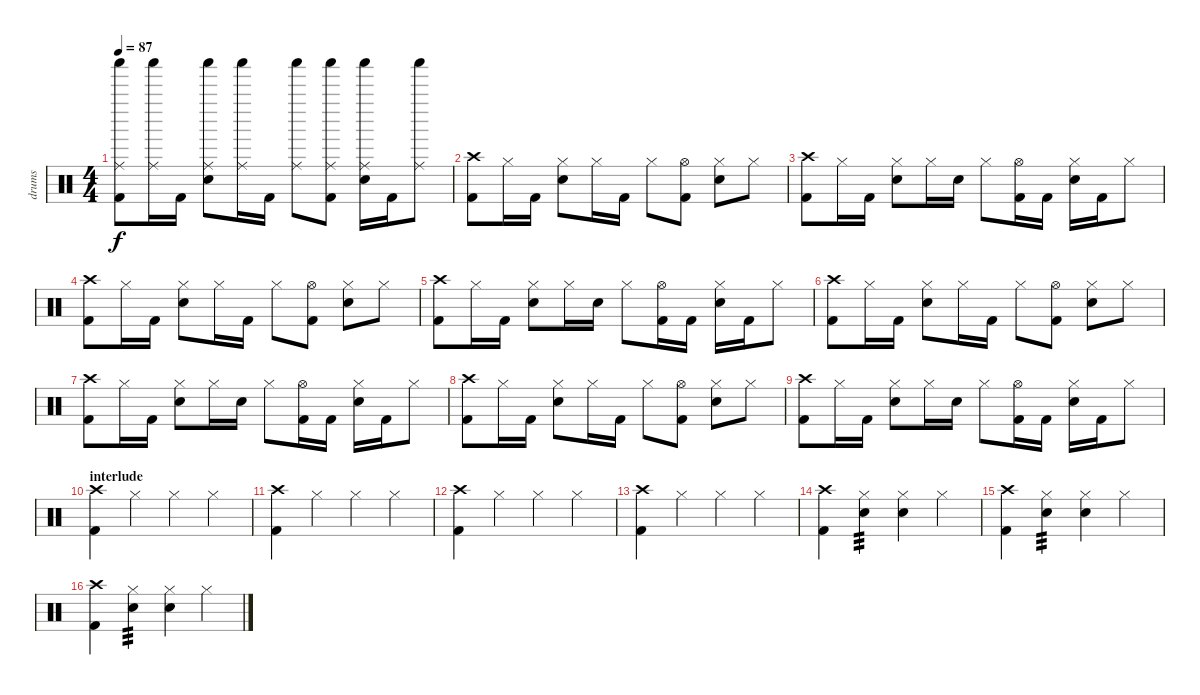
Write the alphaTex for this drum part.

\track ("drums" "drums") {instrument percussion}
\staff {score}
\articulation defaults
\ts (4 4)
\tempo 87
\clef neutral
\ks c
("Shaker (hit)" "Ride (middle)" "Kick (hit) 2").8{dy f} ("Shaker (hit)" "Ride (middle)").16 "Kick (hit) 2".16 ("Shaker (hit)" "Ride (middle)" "Electric Snare (hit)").8 ("Shaker (hit)" "Ride (middle)").16 "Kick (hit) 2".16 ("Shaker (hit)" "Ride (middle)").8 ("Shaker (hit)" "Ride (middle)" "Kick (hit) 2").8 ("Shaker (hit)" "Ride (middle)" "Electric Snare (hit)").16 "Kick (hit) 2".16 ("Shaker (hit)" "Ride (middle)").8 |
("Crash high (hit)" "Kick (hit) 2").8 "Hi-Hat (closed)".16 "Kick (hit) 2".16 ("Hi-Hat (closed)" "Electric Snare (hit)").8 "Hi-Hat (closed)".16 "Kick (hit) 2".16 "Hi-Hat (closed)".8 ("Hi-Hat (open)" "Kick (hit) 2").8 ("Hi-Hat (closed)" "Electric Snare (hit)").8 "Hi-Hat (closed)".8 |
("Crash high (hit)" "Kick (hit) 2").8 "Hi-Hat (closed)".16 "Kick (hit) 2".16 ("Hi-Hat (closed)" "Electric Snare (hit)").8 "Hi-Hat (closed)".16 "Electric Snare (hit)".16 "Hi-Hat (closed)".8 ("Hi-Hat (open)" "Kick (hit) 2").16 "Kick (hit) 2".16 ("Hi-Hat (closed)" "Electric Snare (hit)").16 "Kick (hit) 2".16 "Hi-Hat (closed)".8 |
("Crash high (hit)" "Kick (hit) 2").8 "Hi-Hat (closed)".16 "Kick (hit) 2".16 ("Hi-Hat (closed)" "Electric Snare (hit)").8 "Hi-Hat (closed)".16 "Kick (hit) 2".16 "Hi-Hat (closed)".8 ("Hi-Hat (open)" "Kick (hit) 2").8 ("Hi-Hat (closed)" "Electric Snare (hit)").8 "Hi-Hat (closed)".8 |
("Crash high (hit)" "Kick (hit) 2").8 "Hi-Hat (closed)".16 "Kick (hit) 2".16 ("Hi-Hat (closed)" "Electric Snare (hit)").8 "Hi-Hat (closed)".16 "Electric Snare (hit)".16 "Hi-Hat (closed)".8 ("Hi-Hat (open)" "Kick (hit) 2").16 "Kick (hit) 2".16 ("Hi-Hat (closed)" "Electric Snare (hit)").16 "Kick (hit) 2".16 "Hi-Hat (closed)".8 |
("Crash high (hit)" "Kick (hit) 2").8 "Hi-Hat (closed)".16 "Kick (hit) 2".16 ("Hi-Hat (closed)" "Electric Snare (hit)").8 "Hi-Hat (closed)".16 "Kick (hit) 2".16 "Hi-Hat (closed)".8 ("Hi-Hat (open)" "Kick (hit) 2").8 ("Hi-Hat (closed)" "Electric Snare (hit)").8 "Hi-Hat (closed)".8 |
("Crash high (hit)" "Kick (hit) 2").8 "Hi-Hat (closed)".16 "Kick (hit) 2".16 ("Hi-Hat (closed)" "Electric Snare (hit)").8 "Hi-Hat (closed)".16 "Electric Snare (hit)".16 "Hi-Hat (closed)".8 ("Hi-Hat (open)" "Kick (hit) 2").16 "Kick (hit) 2".16 ("Hi-Hat (closed)" "Electric Snare (hit)").16 "Kick (hit) 2".16 "Hi-Hat (closed)".8 |
("Crash high (hit)" "Kick (hit) 2").8 "Hi-Hat (closed)".16 "Kick (hit) 2".16 ("Hi-Hat (closed)" "Electric Snare (hit)").8 "Hi-Hat (closed)".16 "Kick (hit) 2".16 "Hi-Hat (closed)".8 ("Hi-Hat (open)" "Kick (hit) 2").8 ("Hi-Hat (closed)" "Electric Snare (hit)").8 "Hi-Hat (closed)".8 |
("Crash high (hit)" "Kick (hit) 2").8 "Hi-Hat (closed)".16 "Kick (hit) 2".16 ("Hi-Hat (closed)" "Electric Snare (hit)").8 "Hi-Hat (closed)".16 "Electric Snare (hit)".16 "Hi-Hat (closed)".8 ("Hi-Hat (open)" "Kick (hit) 2").16 "Kick (hit) 2".16 ("Hi-Hat (closed)" "Electric Snare (hit)").16 "Kick (hit) 2".16 "Hi-Hat (closed)".8 |
\section ("" "interlude")
("Crash high (hit)" "Kick (hit) 2").4 "Hi-Hat (closed)".4 "Hi-Hat (closed)".4 "Hi-Hat (closed)".4 |
("Crash high (hit)" "Kick (hit) 2").4 "Hi-Hat (closed)".4 "Hi-Hat (closed)".4 "Hi-Hat (closed)".4 |
("Crash high (hit)" "Kick (hit) 2").4 "Hi-Hat (closed)".4 "Hi-Hat (closed)".4 "Hi-Hat (closed)".4 |
("Crash high (hit)" "Kick (hit) 2").4 "Hi-Hat (closed)".4 "Hi-Hat (closed)".4 "Hi-Hat (closed)".4 |
("Crash high (hit)" "Kick (hit) 2").4 ("Hi-Hat (closed)" "Electric Snare (hit)").4{tp 3} ("Hi-Hat (closed)" "Electric Snare (hit)").4 "Hi-Hat (closed)".4 |
("Crash high (hit)" "Kick (hit) 2").4 ("Hi-Hat (closed)" "Electric Snare (hit)").4{tp 3} ("Hi-Hat (closed)" "Electric Snare (hit)").4 "Hi-Hat (closed)".4 |
("Crash high (hit)" "Kick (hit) 2").4 ("Hi-Hat (closed)" "Electric Snare (hit)").4{tp 3} ("Hi-Hat (closed)" "Electric Snare (hit)").4 "Hi-Hat (closed)".4
